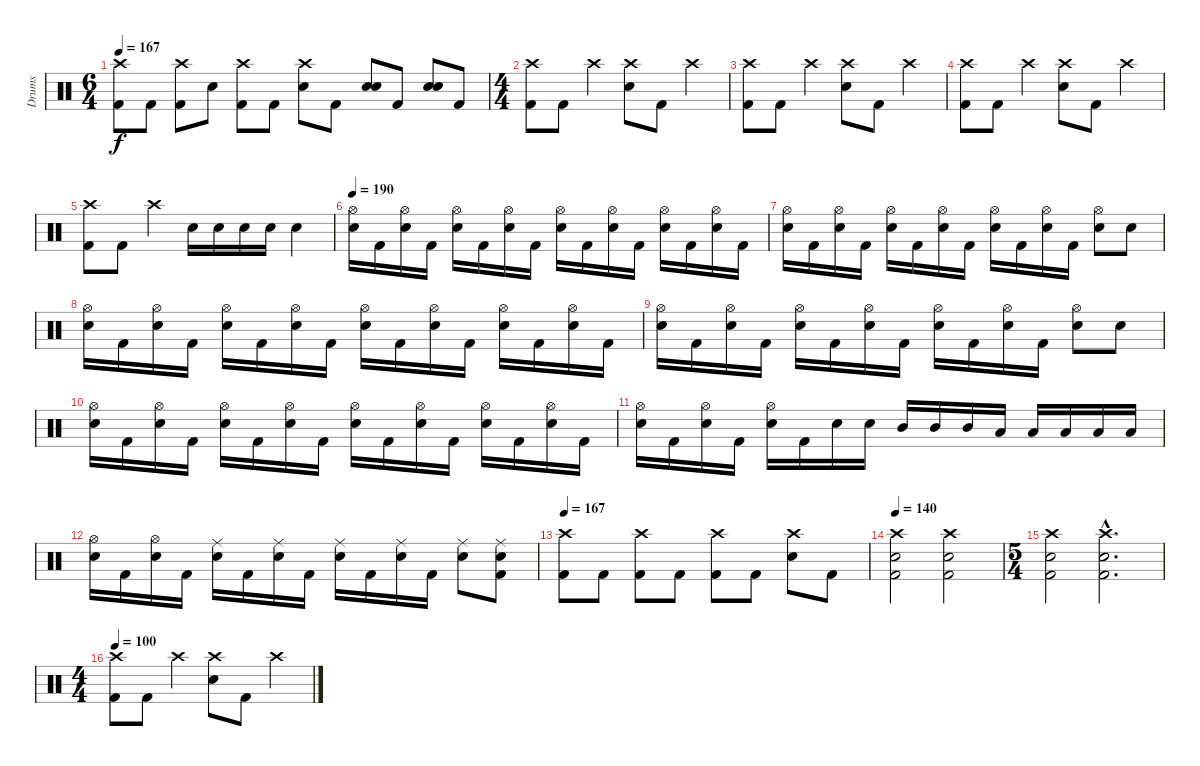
\track ("Drums" "Drums") {instrument percussion}
\staff {score}
\articulation defaults
\ts (6 4)
\tempo 167
\clef neutral
\ks c
("Crash high (hit)" "Kick (hit) 2").8{dy f} "Kick (hit) 2".8 ("Crash high (hit)" "Kick (hit) 2").8 "Electric Snare (hit)".8 ("Crash high (hit)" "Kick (hit) 2").8 "Kick (hit) 2".8 ("Crash high (hit)" "Electric Snare (hit)").8 "Kick (hit) 2".8 ("Electric Snare (hit)" "Electric Snare (hit)").8{bu 120} "Kick (hit) 2".8 ("Electric Snare (hit)" "Electric Snare (hit)").8{bu 120} "Kick (hit) 2".8 |
\ts (4 4)
("Crash high (hit)" "Kick (hit) 2").8 "Kick (hit) 2".8 "Crash high (hit)".4 ("Crash high (hit)" "Electric Snare (hit)").8 "Kick (hit) 2".8 "Crash high (hit)".4 |
("Crash high (hit)" "Kick (hit) 2").8 "Kick (hit) 2".8 "Crash high (hit)".4 ("Crash high (hit)" "Electric Snare (hit)").8 "Kick (hit) 2".8 "Crash high (hit)".4 |
("Crash high (hit)" "Kick (hit) 2").8 "Kick (hit) 2".8 "Crash high (hit)".4 ("Crash high (hit)" "Electric Snare (hit)").8 "Kick (hit) 2".8 "Crash high (hit)".4 |
("Crash high (hit)" "Kick (hit) 2").8 "Kick (hit) 2".8 "Crash high (hit)".4 "Electric Snare (hit)".16 "Electric Snare (hit)".16 "Electric Snare (hit)".16 "Electric Snare (hit)".16 "Electric Snare (hit)".4 |
\tempo 190
("Hi-Hat (open)" "Electric Snare (hit)").16 "Kick (hit) 2".16 ("Hi-Hat (open)" "Electric Snare (hit)").16 "Kick (hit) 2".16 ("Hi-Hat (open)" "Electric Snare (hit)").16 "Kick (hit) 2".16 ("Hi-Hat (open)" "Electric Snare (hit)").16 "Kick (hit) 2".16 ("Hi-Hat (open)" "Electric Snare (hit)").16 "Kick (hit) 2".16 ("Hi-Hat (open)" "Electric Snare (hit)").16 "Kick (hit) 2".16 ("Hi-Hat (open)" "Electric Snare (hit)").16 "Kick (hit) 2".16 ("Hi-Hat (open)" "Electric Snare (hit)").16 "Kick (hit) 2".16 |
("Hi-Hat (open)" "Electric Snare (hit)").16 "Kick (hit) 2".16 ("Hi-Hat (open)" "Electric Snare (hit)").16 "Kick (hit) 2".16 ("Hi-Hat (open)" "Electric Snare (hit)").16 "Kick (hit) 2".16 ("Hi-Hat (open)" "Electric Snare (hit)").16 "Kick (hit) 2".16 ("Hi-Hat (open)" "Electric Snare (hit)").16 "Kick (hit) 2".16 ("Hi-Hat (open)" "Electric Snare (hit)").16 "Kick (hit) 2".16 ("Hi-Hat (open)" "Electric Snare (hit)").8 "Electric Snare (hit)".8 |
("Hi-Hat (open)" "Electric Snare (hit)").16 "Kick (hit) 2".16 ("Hi-Hat (open)" "Electric Snare (hit)").16 "Kick (hit) 2".16 ("Hi-Hat (open)" "Electric Snare (hit)").16 "Kick (hit) 2".16 ("Hi-Hat (open)" "Electric Snare (hit)").16 "Kick (hit) 2".16 ("Hi-Hat (open)" "Electric Snare (hit)").16 "Kick (hit) 2".16 ("Hi-Hat (open)" "Electric Snare (hit)").16 "Kick (hit) 2".16 ("Hi-Hat (open)" "Electric Snare (hit)").16 "Kick (hit) 2".16 ("Hi-Hat (open)" "Electric Snare (hit)").16 "Kick (hit) 2".16 |
("Hi-Hat (open)" "Electric Snare (hit)").16 "Kick (hit) 2".16 ("Hi-Hat (open)" "Electric Snare (hit)").16 "Kick (hit) 2".16 ("Hi-Hat (open)" "Electric Snare (hit)").16 "Kick (hit) 2".16 ("Hi-Hat (open)" "Electric Snare (hit)").16 "Kick (hit) 2".16 ("Hi-Hat (open)" "Electric Snare (hit)").16 "Kick (hit) 2".16 ("Hi-Hat (open)" "Electric Snare (hit)").16 "Kick (hit) 2".16 ("Hi-Hat (open)" "Electric Snare (hit)").8 "Electric Snare (hit)".8 |
("Hi-Hat (open)" "Electric Snare (hit)").16 "Kick (hit) 2".16 ("Hi-Hat (open)" "Electric Snare (hit)").16 "Kick (hit) 2".16 ("Hi-Hat (open)" "Electric Snare (hit)").16 "Kick (hit) 2".16 ("Hi-Hat (open)" "Electric Snare (hit)").16 "Kick (hit) 2".16 ("Hi-Hat (open)" "Electric Snare (hit)").16 "Kick (hit) 2".16 ("Hi-Hat (open)" "Electric Snare (hit)").16 "Kick (hit) 2".16 ("Hi-Hat (open)" "Electric Snare (hit)").16 "Kick (hit) 2".16 ("Hi-Hat (open)" "Electric Snare (hit)").16 "Kick (hit) 2".16 |
("Hi-Hat (open)" "Electric Snare (hit)").16 "Kick (hit) 2".16 ("Hi-Hat (open)" "Electric Snare (hit)").16 "Kick (hit) 2".16 ("Hi-Hat (open)" "Electric Snare (hit)").16 "Kick (hit) 2".16 "Electric Snare (hit)".16 "Electric Snare (hit)".16 "Mid Tom (hit)".16 "Mid Tom (hit)".16 "Mid Tom (hit)".16 "Low Tom (hit)".16 "Low Tom (hit)".16 "Low Floor Tom (hit)".16 "Low Floor Tom (hit)".16 "Low Floor Tom (hit)".16 |
("Hi-Hat (open)" "Electric Snare (hit)").16 "Kick (hit) 2".16 ("Hi-Hat (open)" "Electric Snare (hit)").16 "Kick (hit) 2".16 ("Ride (middle)" "Electric Snare (hit)").16 "Kick (hit) 2".16 ("Ride (middle)" "Electric Snare (hit)").16 "Kick (hit) 2".16 ("Ride (middle)" "Electric Snare (hit)").16 "Kick (hit) 2".16 ("Ride (middle)" "Electric Snare (hit)").16 "Kick (hit) 2".16 ("Ride (middle)" "Electric Snare (hit)").8 ("Ride (middle)" "Electric Snare (hit)" "Kick (hit) 2").8 |
\tempo 167
("Crash high (hit)" "Kick (hit) 2").8 "Kick (hit) 2".8 ("Crash high (hit)" "Kick (hit) 2").8 "Kick (hit) 2".8 ("Crash high (hit)" "Kick (hit) 2").8 "Kick (hit) 2".8 ("Crash high (hit)" "Electric Snare (hit)").8 "Kick (hit) 2".8 |
\tempo 140
("Crash high (hit)" "Electric Snare (hit)" "Kick (hit) 2").2 ("Crash high (hit)" "Electric Snare (hit)" "Kick (hit) 2").2 |
\ts (5 4)
("Crash high (hit)" "Electric Snare (hit)" "Kick (hit) 2").2 ("Crash high (hit)"{hac} "Electric Snare (hit)"{hac} "Kick (hit) 2"{hac}).2{d} |
\ts (4 4)
\tempo 100
("Crash high (hit)" "Kick (hit) 2").8 "Kick (hit) 2".8 "Crash high (hit)".4 ("Crash high (hit)" "Electric Snare (hit)").8 "Kick (hit) 2".8 "Crash high (hit)".4
